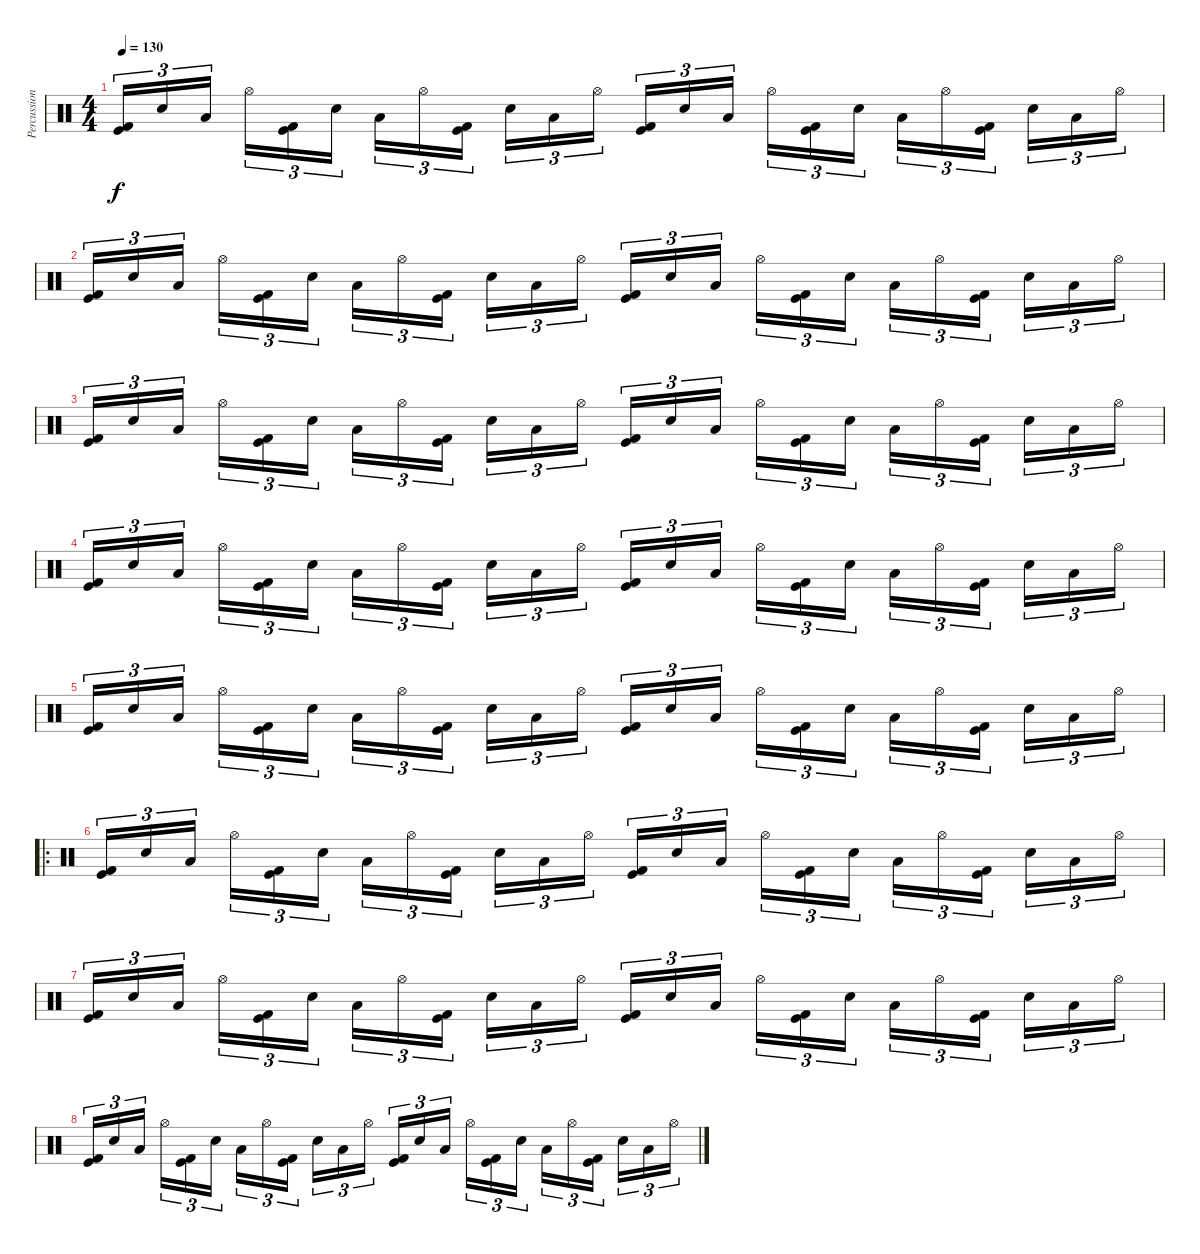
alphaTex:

\track ("Percussion" "Percussion") {instrument percussion}
\staff {score}
\articulation defaults
\ts (4 4)
\tempo 130
\clef neutral
\ks c
("Kick (hit)" "Kick (hit) 2").16{tu (3 2) dy f} "Snare (hit) 2".16{tu (3 2)} "Low Tom (hit)".16{tu (3 2)} "Hi-Hat (open)".16{tu (3 2)} ("Kick (hit)" "Kick (hit) 2").16{tu (3 2)} "Snare (hit) 2".16{tu (3 2)} "Low Tom (hit)".16{tu (3 2)} "Hi-Hat (open)".16{tu (3 2)} ("Kick (hit)" "Kick (hit) 2").16{tu (3 2)} "Snare (hit) 2".16{tu (3 2)} "Low Tom (hit)".16{tu (3 2)} "Hi-Hat (open)".16{tu (3 2)} ("Kick (hit)" "Kick (hit) 2").16{tu (3 2)} "Snare (hit) 2".16{tu (3 2)} "Low Tom (hit)".16{tu (3 2)} "Hi-Hat (open)".16{tu (3 2)} ("Kick (hit)" "Kick (hit) 2").16{tu (3 2)} "Snare (hit) 2".16{tu (3 2)} "Low Tom (hit)".16{tu (3 2)} "Hi-Hat (open)".16{tu (3 2)} ("Kick (hit)" "Kick (hit) 2").16{tu (3 2)} "Snare (hit) 2".16{tu (3 2)} "Low Tom (hit)".16{tu (3 2)} "Hi-Hat (open)".16{tu (3 2)} |
("Kick (hit)" "Kick (hit) 2").16{tu (3 2)} "Snare (hit) 2".16{tu (3 2)} "Low Tom (hit)".16{tu (3 2)} "Hi-Hat (open)".16{tu (3 2)} ("Kick (hit)" "Kick (hit) 2").16{tu (3 2)} "Snare (hit) 2".16{tu (3 2)} "Low Tom (hit)".16{tu (3 2)} "Hi-Hat (open)".16{tu (3 2)} ("Kick (hit)" "Kick (hit) 2").16{tu (3 2)} "Snare (hit) 2".16{tu (3 2)} "Low Tom (hit)".16{tu (3 2)} "Hi-Hat (open)".16{tu (3 2)} ("Kick (hit)" "Kick (hit) 2").16{tu (3 2)} "Snare (hit) 2".16{tu (3 2)} "Low Tom (hit)".16{tu (3 2)} "Hi-Hat (open)".16{tu (3 2)} ("Kick (hit)" "Kick (hit) 2").16{tu (3 2)} "Snare (hit) 2".16{tu (3 2)} "Low Tom (hit)".16{tu (3 2)} "Hi-Hat (open)".16{tu (3 2)} ("Kick (hit)" "Kick (hit) 2").16{tu (3 2)} "Snare (hit) 2".16{tu (3 2)} "Low Tom (hit)".16{tu (3 2)} "Hi-Hat (open)".16{tu (3 2)} |
("Kick (hit)" "Kick (hit) 2").16{tu (3 2)} "Snare (hit) 2".16{tu (3 2)} "Low Tom (hit)".16{tu (3 2)} "Hi-Hat (open)".16{tu (3 2)} ("Kick (hit)" "Kick (hit) 2").16{tu (3 2)} "Snare (hit) 2".16{tu (3 2)} "Low Tom (hit)".16{tu (3 2)} "Hi-Hat (open)".16{tu (3 2)} ("Kick (hit)" "Kick (hit) 2").16{tu (3 2)} "Snare (hit) 2".16{tu (3 2)} "Low Tom (hit)".16{tu (3 2)} "Hi-Hat (open)".16{tu (3 2)} ("Kick (hit)" "Kick (hit) 2").16{tu (3 2)} "Snare (hit) 2".16{tu (3 2)} "Low Tom (hit)".16{tu (3 2)} "Hi-Hat (open)".16{tu (3 2)} ("Kick (hit)" "Kick (hit) 2").16{tu (3 2)} "Snare (hit) 2".16{tu (3 2)} "Low Tom (hit)".16{tu (3 2)} "Hi-Hat (open)".16{tu (3 2)} ("Kick (hit)" "Kick (hit) 2").16{tu (3 2)} "Snare (hit) 2".16{tu (3 2)} "Low Tom (hit)".16{tu (3 2)} "Hi-Hat (open)".16{tu (3 2)} |
("Kick (hit)" "Kick (hit) 2").16{tu (3 2)} "Snare (hit) 2".16{tu (3 2)} "Low Tom (hit)".16{tu (3 2)} "Hi-Hat (open)".16{tu (3 2)} ("Kick (hit)" "Kick (hit) 2").16{tu (3 2)} "Snare (hit) 2".16{tu (3 2)} "Low Tom (hit)".16{tu (3 2)} "Hi-Hat (open)".16{tu (3 2)} ("Kick (hit)" "Kick (hit) 2").16{tu (3 2)} "Snare (hit) 2".16{tu (3 2)} "Low Tom (hit)".16{tu (3 2)} "Hi-Hat (open)".16{tu (3 2)} ("Kick (hit)" "Kick (hit) 2").16{tu (3 2)} "Snare (hit) 2".16{tu (3 2)} "Low Tom (hit)".16{tu (3 2)} "Hi-Hat (open)".16{tu (3 2)} ("Kick (hit)" "Kick (hit) 2").16{tu (3 2)} "Snare (hit) 2".16{tu (3 2)} "Low Tom (hit)".16{tu (3 2)} "Hi-Hat (open)".16{tu (3 2)} ("Kick (hit)" "Kick (hit) 2").16{tu (3 2)} "Snare (hit) 2".16{tu (3 2)} "Low Tom (hit)".16{tu (3 2)} "Hi-Hat (open)".16{tu (3 2)} |
("Kick (hit)" "Kick (hit) 2").16{tu (3 2)} "Snare (hit) 2".16{tu (3 2)} "Low Tom (hit)".16{tu (3 2)} "Hi-Hat (open)".16{tu (3 2)} ("Kick (hit)" "Kick (hit) 2").16{tu (3 2)} "Snare (hit) 2".16{tu (3 2)} "Low Tom (hit)".16{tu (3 2)} "Hi-Hat (open)".16{tu (3 2)} ("Kick (hit)" "Kick (hit) 2").16{tu (3 2)} "Snare (hit) 2".16{tu (3 2)} "Low Tom (hit)".16{tu (3 2)} "Hi-Hat (open)".16{tu (3 2)} ("Kick (hit)" "Kick (hit) 2").16{tu (3 2)} "Snare (hit) 2".16{tu (3 2)} "Low Tom (hit)".16{tu (3 2)} "Hi-Hat (open)".16{tu (3 2)} ("Kick (hit)" "Kick (hit) 2").16{tu (3 2)} "Snare (hit) 2".16{tu (3 2)} "Low Tom (hit)".16{tu (3 2)} "Hi-Hat (open)".16{tu (3 2)} ("Kick (hit)" "Kick (hit) 2").16{tu (3 2)} "Snare (hit) 2".16{tu (3 2)} "Low Tom (hit)".16{tu (3 2)} "Hi-Hat (open)".16{tu (3 2)} |
\ro
("Kick (hit)" "Kick (hit) 2").16{tu (3 2)} "Snare (hit) 2".16{tu (3 2)} "Low Tom (hit)".16{tu (3 2)} "Hi-Hat (open)".16{tu (3 2)} ("Kick (hit)" "Kick (hit) 2").16{tu (3 2)} "Snare (hit) 2".16{tu (3 2)} "Low Tom (hit)".16{tu (3 2)} "Hi-Hat (open)".16{tu (3 2)} ("Kick (hit)" "Kick (hit) 2").16{tu (3 2)} "Snare (hit) 2".16{tu (3 2)} "Low Tom (hit)".16{tu (3 2)} "Hi-Hat (open)".16{tu (3 2)} ("Kick (hit)" "Kick (hit) 2").16{tu (3 2)} "Snare (hit) 2".16{tu (3 2)} "Low Tom (hit)".16{tu (3 2)} "Hi-Hat (open)".16{tu (3 2)} ("Kick (hit)" "Kick (hit) 2").16{tu (3 2)} "Snare (hit) 2".16{tu (3 2)} "Low Tom (hit)".16{tu (3 2)} "Hi-Hat (open)".16{tu (3 2)} ("Kick (hit)" "Kick (hit) 2").16{tu (3 2)} "Snare (hit) 2".16{tu (3 2)} "Low Tom (hit)".16{tu (3 2)} "Hi-Hat (open)".16{tu (3 2)} |
("Kick (hit)" "Kick (hit) 2").16{tu (3 2)} "Snare (hit) 2".16{tu (3 2)} "Low Tom (hit)".16{tu (3 2)} "Hi-Hat (open)".16{tu (3 2)} ("Kick (hit)" "Kick (hit) 2").16{tu (3 2)} "Snare (hit) 2".16{tu (3 2)} "Low Tom (hit)".16{tu (3 2)} "Hi-Hat (open)".16{tu (3 2)} ("Kick (hit)" "Kick (hit) 2").16{tu (3 2)} "Snare (hit) 2".16{tu (3 2)} "Low Tom (hit)".16{tu (3 2)} "Hi-Hat (open)".16{tu (3 2)} ("Kick (hit)" "Kick (hit) 2").16{tu (3 2)} "Snare (hit) 2".16{tu (3 2)} "Low Tom (hit)".16{tu (3 2)} "Hi-Hat (open)".16{tu (3 2)} ("Kick (hit)" "Kick (hit) 2").16{tu (3 2)} "Snare (hit) 2".16{tu (3 2)} "Low Tom (hit)".16{tu (3 2)} "Hi-Hat (open)".16{tu (3 2)} ("Kick (hit)" "Kick (hit) 2").16{tu (3 2)} "Snare (hit) 2".16{tu (3 2)} "Low Tom (hit)".16{tu (3 2)} "Hi-Hat (open)".16{tu (3 2)} |
("Kick (hit)" "Kick (hit) 2").16{tu (3 2)} "Snare (hit) 2".16{tu (3 2)} "Low Tom (hit)".16{tu (3 2)} "Hi-Hat (open)".16{tu (3 2)} ("Kick (hit)" "Kick (hit) 2").16{tu (3 2)} "Snare (hit) 2".16{tu (3 2)} "Low Tom (hit)".16{tu (3 2)} "Hi-Hat (open)".16{tu (3 2)} ("Kick (hit)" "Kick (hit) 2").16{tu (3 2)} "Snare (hit) 2".16{tu (3 2)} "Low Tom (hit)".16{tu (3 2)} "Hi-Hat (open)".16{tu (3 2)} ("Kick (hit)" "Kick (hit) 2").16{tu (3 2)} "Snare (hit) 2".16{tu (3 2)} "Low Tom (hit)".16{tu (3 2)} "Hi-Hat (open)".16{tu (3 2)} ("Kick (hit)" "Kick (hit) 2").16{tu (3 2)} "Snare (hit) 2".16{tu (3 2)} "Low Tom (hit)".16{tu (3 2)} "Hi-Hat (open)".16{tu (3 2)} ("Kick (hit)" "Kick (hit) 2").16{tu (3 2)} "Snare (hit) 2".16{tu (3 2)} "Low Tom (hit)".16{tu (3 2)} "Hi-Hat (open)".16{tu (3 2)}
